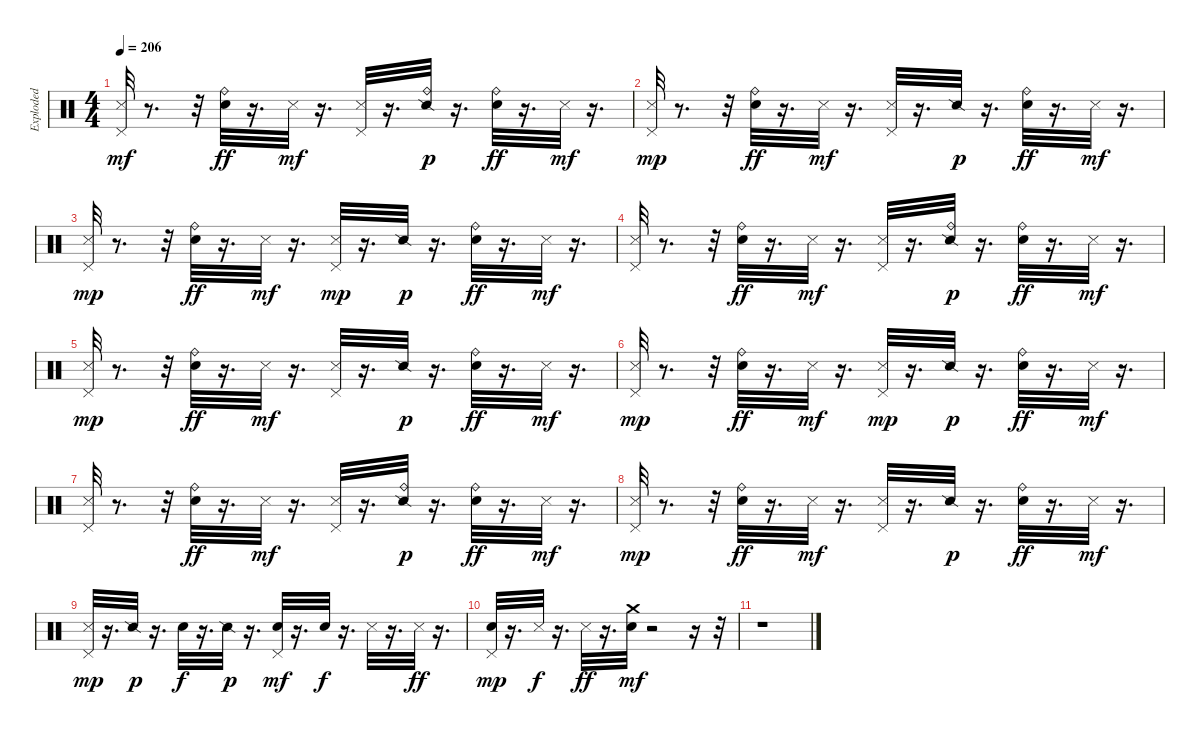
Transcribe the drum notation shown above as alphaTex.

\track ("Exploded" "Exploded") {instrument percussion}
\staff {score}
\articulation defaults
\ts (4 4)
\tempo 206
\clef neutral
\ks c
("Metronome (hit)" "Pedal Hi-Hat (hit)").32{dy mf} r.8{d} r.32 ("Electric Snare (hit)" "Ride (bell)").32{dy ff} r.16{d} "Metronome (hit)".32{dy mf} r.16{d} ("Metronome (hit)" "Pedal Hi-Hat (hit)").32 r.16{d} ("Snare (side stick) 2" "Ride (bell)").32{dy p} r.16{d} ("Electric Snare (hit)" "Ride (bell)").32{dy ff} r.16{d} "Metronome (hit)".32{dy mf} r.16{d} |
("Metronome (hit)" "Pedal Hi-Hat (hit)").32{dy mp} r.8{d} r.32 ("Electric Snare (hit)" "Ride (bell)").32{dy ff} r.16{d} "Metronome (hit)".32{dy mf} r.16{d} ("Metronome (hit)" "Pedal Hi-Hat (hit)").32 r.16{d} "Snare (side stick) 2".32{dy p} r.16{d} ("Electric Snare (hit)" "Ride (bell)").32{dy ff} r.16{d} "Metronome (hit)".32{dy mf} r.16{d} |
("Metronome (hit)" "Pedal Hi-Hat (hit)").32{dy mp} r.8{d} r.32 ("Electric Snare (hit)" "Ride (bell)").32{dy ff} r.16{d} "Metronome (hit)".32{dy mf} r.16{d} ("Metronome (hit)" "Pedal Hi-Hat (hit)").32{dy mp} r.16{d} "Snare (side stick) 2".32{dy p} r.16{d} ("Electric Snare (hit)" "Ride (bell)").32{dy ff} r.16{d} "Metronome (hit)".32{dy mf} r.16{d} |
("Metronome (hit)" "Pedal Hi-Hat (hit)").32 r.8{d} r.32 ("Electric Snare (hit)" "Ride (bell)").32{dy ff} r.16{d} "Metronome (hit)".32{dy mf} r.16{d} ("Metronome (hit)" "Pedal Hi-Hat (hit)").32 r.16{d} ("Snare (side stick) 2" "Ride (bell)").32{dy p} r.16{d} ("Electric Snare (hit)" "Ride (bell)").32{dy ff} r.16{d} "Metronome (hit)".32{dy mf} r.16{d} |
("Metronome (hit)" "Pedal Hi-Hat (hit)").32{dy mp} r.8{d} r.32 ("Electric Snare (hit)" "Ride (bell)").32{dy ff} r.16{d} "Metronome (hit)".32{dy mf} r.16{d} ("Metronome (hit)" "Pedal Hi-Hat (hit)").32 r.16{d} "Snare (side stick) 2".32{dy p} r.16{d} ("Electric Snare (hit)" "Ride (bell)").32{dy ff} r.16{d} "Metronome (hit)".32{dy mf} r.16{d} |
("Metronome (hit)" "Pedal Hi-Hat (hit)").32{dy mp} r.8{d} r.32 ("Electric Snare (hit)" "Ride (bell)").32{dy ff} r.16{d} "Metronome (hit)".32{dy mf} r.16{d} ("Metronome (hit)" "Pedal Hi-Hat (hit)").32{dy mp} r.16{d} "Snare (side stick) 2".32{dy p} r.16{d} ("Electric Snare (hit)" "Ride (bell)").32{dy ff} r.16{d} "Metronome (hit)".32{dy mf} r.16{d} |
("Metronome (hit)" "Pedal Hi-Hat (hit)").32 r.8{d} r.32 ("Electric Snare (hit)" "Ride (bell)").32{dy ff} r.16{d} "Metronome (hit)".32{dy mf} r.16{d} ("Metronome (hit)" "Pedal Hi-Hat (hit)").32 r.16{d} ("Snare (side stick) 2" "Ride (bell)").32{dy p} r.16{d} ("Electric Snare (hit)" "Ride (bell)").32{dy ff} r.16{d} "Metronome (hit)".32{dy mf} r.16{d} |
("Metronome (hit)" "Pedal Hi-Hat (hit)").32{dy mp} r.8{d} r.32 ("Electric Snare (hit)" "Ride (bell)").32{dy ff} r.16{d} "Metronome (hit)".32{dy mf} r.16{d} ("Metronome (hit)" "Pedal Hi-Hat (hit)").32 r.16{d} "Snare (side stick) 2".32{dy p} r.16{d} ("Electric Snare (hit)" "Ride (bell)").32{dy ff} r.16{d} "Metronome (hit)".32{dy mf} r.16{d} |
("Metronome (hit)" "Pedal Hi-Hat (hit)").32{dy mp} r.16{d} "Snare (side stick) 2".32{dy p} r.16{d} "Electric Snare (hit)".32{dy f} r.16{d} "Snare (side stick) 2".32{dy p} r.16{d} ("Electric Snare (hit)" "Pedal Hi-Hat (hit)").32{dy mf} r.16{d} "Electric Snare (hit)".32{dy f} r.16{d} "Metronome (hit)".32 r.16{d} "Metronome (hit)".32{dy ff} r.16{d} |
("Electric Snare (hit)" "Pedal Hi-Hat (hit)").32{dy mp} r.16{d} "Metronome (hit)".32{dy f} r.16{d} "Metronome (hit)".32{dy ff} r.16{d} ("Electric Snare (hit)" "Crash medium (hit)").32{dy mf} r.2 r.16 r.32 |
r.1
